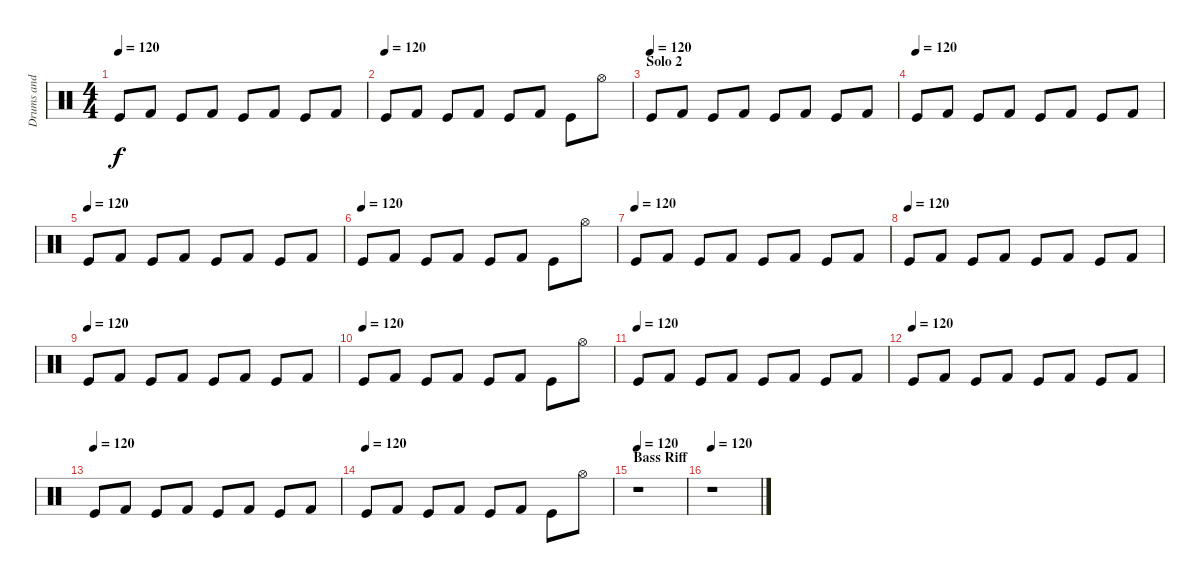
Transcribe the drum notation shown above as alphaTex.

\track ("Drums and Percussion" "Drums and ") {instrument percussion}
\staff {score}
\articulation defaults
\ts (4 4)
\tempo 120
\clef neutral
\ks c "Kick (hit)".8{dy f} "Kick (hit) 2".8 "Kick (hit)".8 "Kick (hit) 2".8 "Kick (hit)".8 "Kick (hit) 2".8 "Kick (hit)".8 "Kick (hit) 2".8
|
\tempo (120)
"Kick (hit)".8 "Kick (hit) 2".8 "Kick (hit)".8 "Kick (hit) 2".8 "Kick (hit)".8 "Kick (hit) 2".8 "Kick (hit)".8 "Hi-Hat (open)".8 |
\section ("" "Solo 2")
\tempo (120)
"Kick (hit)".8 "Kick (hit) 2".8 "Kick (hit)".8 "Kick (hit) 2".8 "Kick (hit)".8 "Kick (hit) 2".8 "Kick (hit)".8 "Kick (hit) 2".8 |
\tempo (120)
"Kick (hit)".8 "Kick (hit) 2".8 "Kick (hit)".8 "Kick (hit) 2".8 "Kick (hit)".8 "Kick (hit) 2".8 "Kick (hit)".8 "Kick (hit) 2".8 |
\tempo (120)
"Kick (hit)".8 "Kick (hit) 2".8 "Kick (hit)".8 "Kick (hit) 2".8 "Kick (hit)".8 "Kick (hit) 2".8 "Kick (hit)".8 "Kick (hit) 2".8 |
\tempo (120)
"Kick (hit)".8 "Kick (hit) 2".8 "Kick (hit)".8 "Kick (hit) 2".8 "Kick (hit)".8 "Kick (hit) 2".8 "Kick (hit)".8 "Hi-Hat (open)".8 |
\tempo (120)
"Kick (hit)".8 "Kick (hit) 2".8 "Kick (hit)".8 "Kick (hit) 2".8 "Kick (hit)".8 "Kick (hit) 2".8 "Kick (hit)".8 "Kick (hit) 2".8 |
\tempo (120)
"Kick (hit)".8 "Kick (hit) 2".8 "Kick (hit)".8 "Kick (hit) 2".8 "Kick (hit)".8 "Kick (hit) 2".8 "Kick (hit)".8 "Kick (hit) 2".8 |
\tempo (120)
"Kick (hit)".8 "Kick (hit) 2".8 "Kick (hit)".8 "Kick (hit) 2".8 "Kick (hit)".8 "Kick (hit) 2".8 "Kick (hit)".8 "Kick (hit) 2".8 |
\tempo (120)
"Kick (hit)".8 "Kick (hit) 2".8 "Kick (hit)".8 "Kick (hit) 2".8 "Kick (hit)".8 "Kick (hit) 2".8 "Kick (hit)".8 "Hi-Hat (open)".8 |
\tempo (120)
"Kick (hit)".8 "Kick (hit) 2".8 "Kick (hit)".8 "Kick (hit) 2".8 "Kick (hit)".8 "Kick (hit) 2".8 "Kick (hit)".8 "Kick (hit) 2".8 |
\tempo (120)
"Kick (hit)".8 "Kick (hit) 2".8 "Kick (hit)".8 "Kick (hit) 2".8 "Kick (hit)".8 "Kick (hit) 2".8 "Kick (hit)".8 "Kick (hit) 2".8 |
\tempo (120)
"Kick (hit)".8 "Kick (hit) 2".8 "Kick (hit)".8 "Kick (hit) 2".8 "Kick (hit)".8 "Kick (hit) 2".8 "Kick (hit)".8 "Kick (hit) 2".8 |
\tempo (120)
"Kick (hit)".8 "Kick (hit) 2".8 "Kick (hit)".8 "Kick (hit) 2".8 "Kick (hit)".8 "Kick (hit) 2".8 "Kick (hit)".8 "Hi-Hat (open)".8 |
\section ("" "Bass Riff")
\tempo 120
r.1 |
\tempo 120
r.1
